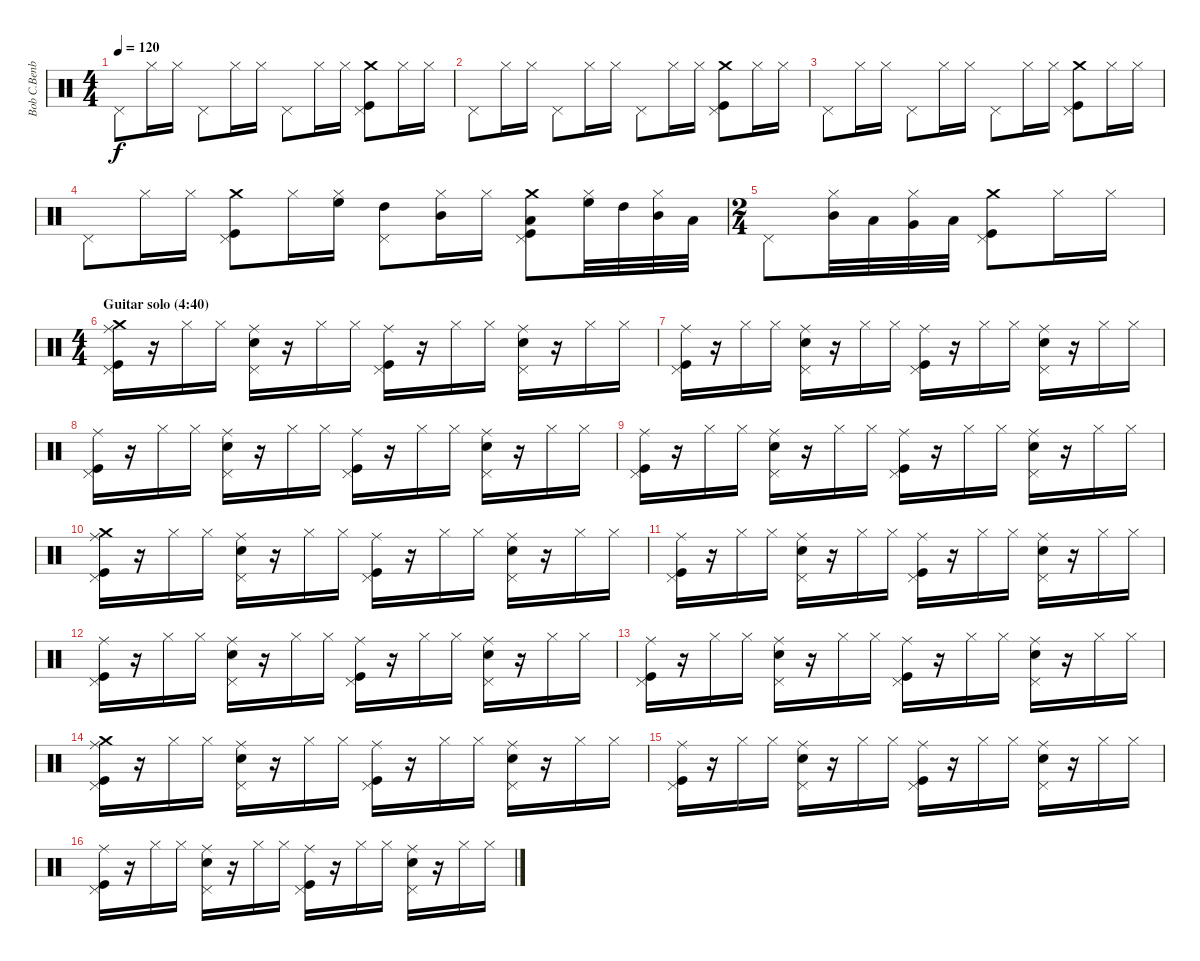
\track ("Bob C.Benberg (drums)" "Bob C.Benb") {instrument percussion}
\staff {score}
\articulation defaults
\ts (4 4)
\tempo 120
\clef neutral
\ks c "Pedal Hi-Hat (hit)".8{dy f} "Hi-Hat (closed)".16 "Hi-Hat (closed)".16 "Pedal Hi-Hat (hit)".8 "Hi-Hat (closed)".16 "Hi-Hat (closed)".16 "Pedal Hi-Hat (hit)".8 "Hi-Hat (closed)".16 "Hi-Hat (closed)".16
("Pedal Hi-Hat (hit)" "Kick (hit)" "Crash medium (hit)").8 "Hi-Hat (closed)".16 "Hi-Hat (closed)".16 |
"Pedal Hi-Hat (hit)".8 "Hi-Hat (closed)".16 "Hi-Hat (closed)".16 "Pedal Hi-Hat (hit)".8 "Hi-Hat (closed)".16 "Hi-Hat (closed)".16 "Pedal Hi-Hat (hit)".8 "Hi-Hat (closed)".16 "Hi-Hat (closed)".16 ("Pedal Hi-Hat (hit)" "Kick (hit)" "Crash medium (hit)").8 "Hi-Hat (closed)".16 "Hi-Hat (closed)".16 |
"Pedal Hi-Hat (hit)".8 "Hi-Hat (closed)".16 "Hi-Hat (closed)".16 "Pedal Hi-Hat (hit)".8 "Hi-Hat (closed)".16 "Hi-Hat (closed)".16 "Pedal Hi-Hat (hit)".8 "Hi-Hat (closed)".16 "Hi-Hat (closed)".16 ("Pedal Hi-Hat (hit)" "Kick (hit)" "Crash medium (hit)").8 "Hi-Hat (closed)".16 "Hi-Hat (closed)".16 |
"Pedal Hi-Hat (hit)".8 "Hi-Hat (closed)".16 "Hi-Hat (closed)".16 ("Pedal Hi-Hat (hit)" "Kick (hit)" "Crash medium (hit)").8 "Hi-Hat (closed)".16 ("Hi-Hat (closed)" "High Floor Tom (hit)").16 ("Pedal Hi-Hat (hit)" "High Tom (hit)").8 ("Hi-Hat (closed)" "Mid Tom (hit)").16 "Hi-Hat (closed)".16 ("Pedal Hi-Hat (hit)" "Low Tom (hit)" "Kick (hit)" "Crash medium (hit)").8 ("Hi-Hat (closed)" "High Floor Tom (hit)").32 "High Tom (hit)".32 ("Hi-Hat (closed)" "Mid Tom (hit)").32 "Low Tom (hit)".32 |
\ts (2 4)
"Pedal Hi-Hat (hit)".8 ("Hi-Hat (closed)" "Mid Tom (hit)").32 "Low Tom (hit)".32 ("Hi-Hat (closed)" "Very Low Tom (hit)").32 "Low Floor Tom (hit)".32 ("Pedal Hi-Hat (hit)" "Kick (hit)" "Crash medium (hit)").8 "Hi-Hat (closed)".16 "Hi-Hat (closed)".16 |
\ts (4 4)
\section ("" "Guitar solo (4:40)")
("Pedal Hi-Hat (hit)" "Kick (hit)" "Ride (middle)" "Crash medium (hit)").16 r.16 "Hi-Hat (closed)".16 "Hi-Hat (closed)".16 ("Pedal Hi-Hat (hit)" "Snare (hit) 2" "Ride (middle)").16 r.16 "Hi-Hat (closed)".16 "Hi-Hat (closed)".16 ("Pedal Hi-Hat (hit)" "Kick (hit)" "Ride (middle)").16 r.16 "Hi-Hat (closed)".16 "Hi-Hat (closed)".16 ("Pedal Hi-Hat (hit)" "Snare (hit) 2" "Ride (middle)").16 r.16 "Hi-Hat (closed)".16 "Hi-Hat (closed)".16 |
("Pedal Hi-Hat (hit)" "Kick (hit)" "Ride (middle)").16 r.16 "Hi-Hat (closed)".16 "Hi-Hat (closed)".16 ("Pedal Hi-Hat (hit)" "Snare (hit) 2" "Ride (middle)").16 r.16 "Hi-Hat (closed)".16 "Hi-Hat (closed)".16 ("Pedal Hi-Hat (hit)" "Kick (hit)" "Ride (middle)").16 r.16 "Hi-Hat (closed)".16 "Hi-Hat (closed)".16 ("Pedal Hi-Hat (hit)" "Snare (hit) 2" "Ride (middle)").16 r.16 "Hi-Hat (closed)".16 "Hi-Hat (closed)".16 |
("Pedal Hi-Hat (hit)" "Kick (hit)" "Ride (middle)").16 r.16 "Hi-Hat (closed)".16 "Hi-Hat (closed)".16 ("Pedal Hi-Hat (hit)" "Snare (hit) 2" "Ride (middle)").16 r.16 "Hi-Hat (closed)".16 "Hi-Hat (closed)".16 ("Pedal Hi-Hat (hit)" "Kick (hit)" "Ride (middle)").16 r.16 "Hi-Hat (closed)".16 "Hi-Hat (closed)".16 ("Pedal Hi-Hat (hit)" "Snare (hit) 2" "Ride (middle)").16 r.16 "Hi-Hat (closed)".16 "Hi-Hat (closed)".16 |
("Pedal Hi-Hat (hit)" "Kick (hit)" "Ride (middle)").16 r.16 "Hi-Hat (closed)".16 "Hi-Hat (closed)".16 ("Pedal Hi-Hat (hit)" "Snare (hit) 2" "Ride (middle)").16 r.16 "Hi-Hat (closed)".16 "Hi-Hat (closed)".16 ("Pedal Hi-Hat (hit)" "Kick (hit)" "Ride (middle)").16 r.16 "Hi-Hat (closed)".16 "Hi-Hat (closed)".16 ("Pedal Hi-Hat (hit)" "Snare (hit) 2" "Ride (middle)").16 r.16 "Hi-Hat (closed)".16 "Hi-Hat (closed)".16 |
("Pedal Hi-Hat (hit)" "Kick (hit)" "Ride (middle)" "Crash medium (hit)").16 r.16 "Hi-Hat (closed)".16 "Hi-Hat (closed)".16 ("Pedal Hi-Hat (hit)" "Snare (hit) 2" "Ride (middle)").16 r.16 "Hi-Hat (closed)".16 "Hi-Hat (closed)".16 ("Pedal Hi-Hat (hit)" "Kick (hit)" "Ride (middle)").16 r.16 "Hi-Hat (closed)".16 "Hi-Hat (closed)".16 ("Pedal Hi-Hat (hit)" "Snare (hit) 2" "Ride (middle)").16 r.16 "Hi-Hat (closed)".16 "Hi-Hat (closed)".16 |
("Pedal Hi-Hat (hit)" "Kick (hit)" "Ride (middle)").16 r.16 "Hi-Hat (closed)".16 "Hi-Hat (closed)".16 ("Pedal Hi-Hat (hit)" "Snare (hit) 2" "Ride (middle)").16 r.16 "Hi-Hat (closed)".16 "Hi-Hat (closed)".16 ("Pedal Hi-Hat (hit)" "Kick (hit)" "Ride (middle)").16 r.16 "Hi-Hat (closed)".16 "Hi-Hat (closed)".16 ("Pedal Hi-Hat (hit)" "Snare (hit) 2" "Ride (middle)").16 r.16 "Hi-Hat (closed)".16 "Hi-Hat (closed)".16 |
("Pedal Hi-Hat (hit)" "Kick (hit)" "Ride (middle)").16 r.16 "Hi-Hat (closed)".16 "Hi-Hat (closed)".16 ("Pedal Hi-Hat (hit)" "Snare (hit) 2" "Ride (middle)").16 r.16 "Hi-Hat (closed)".16 "Hi-Hat (closed)".16 ("Pedal Hi-Hat (hit)" "Kick (hit)" "Ride (middle)").16 r.16 "Hi-Hat (closed)".16 "Hi-Hat (closed)".16 ("Pedal Hi-Hat (hit)" "Snare (hit) 2" "Ride (middle)").16 r.16 "Hi-Hat (closed)".16 "Hi-Hat (closed)".16 |
("Pedal Hi-Hat (hit)" "Kick (hit)" "Ride (middle)").16 r.16 "Hi-Hat (closed)".16 "Hi-Hat (closed)".16 ("Pedal Hi-Hat (hit)" "Snare (hit) 2" "Ride (middle)").16 r.16 "Hi-Hat (closed)".16 "Hi-Hat (closed)".16 ("Pedal Hi-Hat (hit)" "Kick (hit)" "Ride (middle)").16 r.16 "Hi-Hat (closed)".16 "Hi-Hat (closed)".16 ("Pedal Hi-Hat (hit)" "Snare (hit) 2" "Ride (middle)").16 r.16 "Hi-Hat (closed)".16 "Hi-Hat (closed)".16 |
("Pedal Hi-Hat (hit)" "Kick (hit)" "Ride (middle)" "Crash medium (hit)").16 r.16 "Hi-Hat (closed)".16 "Hi-Hat (closed)".16 ("Pedal Hi-Hat (hit)" "Snare (hit) 2" "Ride (middle)").16 r.16 "Hi-Hat (closed)".16 "Hi-Hat (closed)".16 ("Pedal Hi-Hat (hit)" "Kick (hit)" "Ride (middle)").16 r.16 "Hi-Hat (closed)".16 "Hi-Hat (closed)".16 ("Pedal Hi-Hat (hit)" "Snare (hit) 2" "Ride (middle)").16 r.16 "Hi-Hat (closed)".16 "Hi-Hat (closed)".16 |
("Pedal Hi-Hat (hit)" "Kick (hit)" "Ride (middle)").16 r.16 "Hi-Hat (closed)".16 "Hi-Hat (closed)".16 ("Pedal Hi-Hat (hit)" "Snare (hit) 2" "Ride (middle)").16 r.16 "Hi-Hat (closed)".16 "Hi-Hat (closed)".16 ("Pedal Hi-Hat (hit)" "Kick (hit)" "Ride (middle)").16 r.16 "Hi-Hat (closed)".16 "Hi-Hat (closed)".16 ("Pedal Hi-Hat (hit)" "Snare (hit) 2" "Ride (middle)").16 r.16 "Hi-Hat (closed)".16 "Hi-Hat (closed)".16 |
("Pedal Hi-Hat (hit)" "Kick (hit)" "Ride (middle)").16 r.16 "Hi-Hat (closed)".16 "Hi-Hat (closed)".16 ("Pedal Hi-Hat (hit)" "Snare (hit) 2" "Ride (middle)").16 r.16 "Hi-Hat (closed)".16 "Hi-Hat (closed)".16 ("Pedal Hi-Hat (hit)" "Kick (hit)" "Ride (middle)").16 r.16 "Hi-Hat (closed)".16 "Hi-Hat (closed)".16 ("Pedal Hi-Hat (hit)" "Snare (hit) 2" "Ride (middle)").16 r.16 "Hi-Hat (closed)".16 "Hi-Hat (closed)".16
